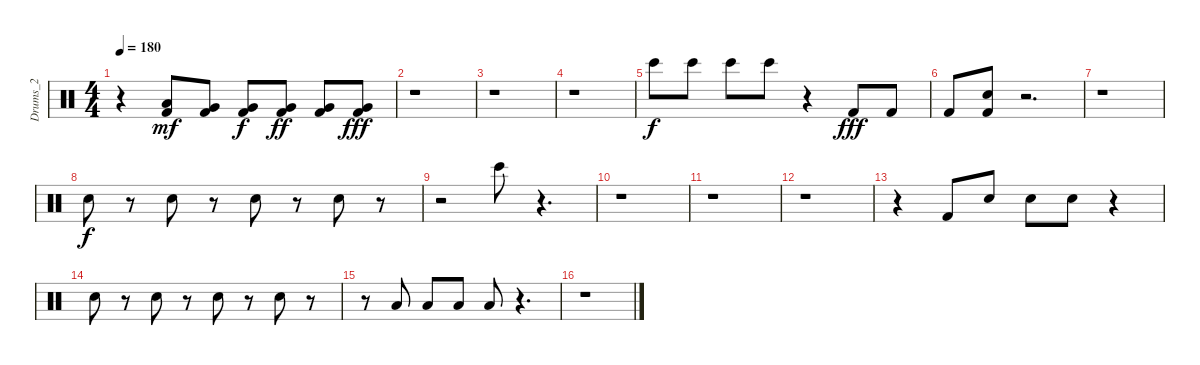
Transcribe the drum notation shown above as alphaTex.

\track ("Drums_2" "Drums_2") {instrument percussion}
\staff {score}
\articulation defaults
\ts (4 4)
\tempo 180
\clef neutral
\ks c
r.4{dy f} ("Kick (hit) 2" "Low Floor Tom (hit)").8{dy mf} ("Kick (hit) 2" "Very Low Tom (hit)").8 ("Kick (hit) 2" "Very Low Tom (hit)").8{dy f} ("Kick (hit) 2" "Very Low Tom (hit)").8{dy ff} ("Kick (hit) 2" "Very Low Tom (hit)").8 ("Kick (hit) 2" "Very Low Tom (hit)").8{dy fff} |
r.1 |
r.1 |
r.1 |
"Bongo High (hit)".8{dy f} "Bongo High (hit)".8 "Bongo High (hit)".8 "Bongo High (hit)".8 r.4 "Kick (hit) 2".8{dy fff} "Kick (hit) 2".8 |
"Kick (hit) 2".8 ("Kick (hit) 2" "Snare (hit) 2").8 r.2{d} |
r.1 |
"Snare (hit) 2".8{dy f} r.8 "Snare (hit) 2".8 r.8 "Snare (hit) 2".8 r.8 "Snare (hit) 2".8 r.8 |
r.2 "Bongo High (hit)".8 r.4{d} |
r.1 |
r.1 |
r.1 |
r.4 "Kick (hit) 2".8 "Snare (hit) 2".8 "Snare (hit) 2".8 "Snare (hit) 2".8 r.4 |
"Snare (hit) 2".8 r.8 "Snare (hit) 2".8 r.8 "Snare (hit) 2".8 r.8 "Snare (hit) 2".8 r.8 |
r.8 "Low Floor Tom (hit)".8 "Low Floor Tom (hit)".8 "Low Floor Tom (hit)".8 "Low Floor Tom (hit)".8 r.4{d} |
r.1
